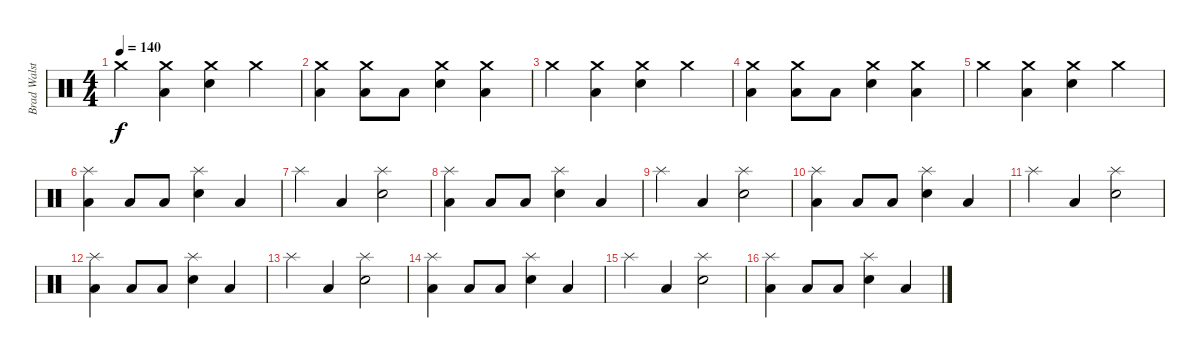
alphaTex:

\track ("Brad Walst" "Brad Walst") {instrument percussion}
\staff {score}
\articulation defaults
\ts (4 4)
\tempo 140
\clef neutral
\ks c "Crash medium (hit)".4{dy f}
("Low Floor Tom (hit)" "Crash medium (hit)").4 ("Crash medium (hit)" "Electric Snare (hit)").4 "Crash medium (hit)".4 |
("Low Floor Tom (hit)" "Crash medium (hit)").4 ("Low Floor Tom (hit)" "Crash medium (hit)").8 "Low Floor Tom (hit)".8 ("Crash medium (hit)" "Electric Snare (hit)").4 ("Low Floor Tom (hit)" "Crash medium (hit)").4 |
"Crash medium (hit)".4 ("Low Floor Tom (hit)" "Crash medium (hit)").4 ("Crash medium (hit)" "Electric Snare (hit)").4 "Crash medium (hit)".4 |
("Low Floor Tom (hit)" "Crash medium (hit)").4 ("Low Floor Tom (hit)" "Crash medium (hit)").8 "Low Floor Tom (hit)".8 ("Crash medium (hit)" "Electric Snare (hit)").4 ("Low Floor Tom (hit)" "Crash medium (hit)").4 |
"Crash medium (hit)".4 ("Low Floor Tom (hit)" "Crash medium (hit)").4 ("Crash medium (hit)" "Electric Snare (hit)").4 "Crash medium (hit)".4 |
("Low Floor Tom (hit)" "Splash (hit)").4 "Low Floor Tom (hit)".8 "Low Floor Tom (hit)".8 ("Splash (hit)" "Electric Snare (hit)").4 "Low Floor Tom (hit)".4 |
"Splash (hit)".4 "Low Floor Tom (hit)".4 ("Splash (hit)" "Electric Snare (hit)").2 |
("Low Floor Tom (hit)" "Splash (hit)").4 "Low Floor Tom (hit)".8 "Low Floor Tom (hit)".8 ("Splash (hit)" "Electric Snare (hit)").4 "Low Floor Tom (hit)".4 |
"Splash (hit)".4 "Low Floor Tom (hit)".4 ("Splash (hit)" "Electric Snare (hit)").2 |
("Low Floor Tom (hit)" "Splash (hit)").4 "Low Floor Tom (hit)".8 "Low Floor Tom (hit)".8 ("Splash (hit)" "Electric Snare (hit)").4 "Low Floor Tom (hit)".4 |
"Splash (hit)".4 "Low Floor Tom (hit)".4 ("Splash (hit)" "Electric Snare (hit)").2 |
("Low Floor Tom (hit)" "Splash (hit)").4 "Low Floor Tom (hit)".8 "Low Floor Tom (hit)".8 ("Splash (hit)" "Electric Snare (hit)").4 "Low Floor Tom (hit)".4 |
"Splash (hit)".4 "Low Floor Tom (hit)".4 ("Splash (hit)" "Electric Snare (hit)").2 |
("Low Floor Tom (hit)" "Splash (hit)").4 "Low Floor Tom (hit)".8 "Low Floor Tom (hit)".8 ("Splash (hit)" "Electric Snare (hit)").4 "Low Floor Tom (hit)".4 |
"Splash (hit)".4 "Low Floor Tom (hit)".4 ("Splash (hit)" "Electric Snare (hit)").2 |
("Low Floor Tom (hit)" "Splash (hit)").4 "Low Floor Tom (hit)".8 "Low Floor Tom (hit)".8 ("Splash (hit)" "Electric Snare (hit)").4 "Low Floor Tom (hit)".4
